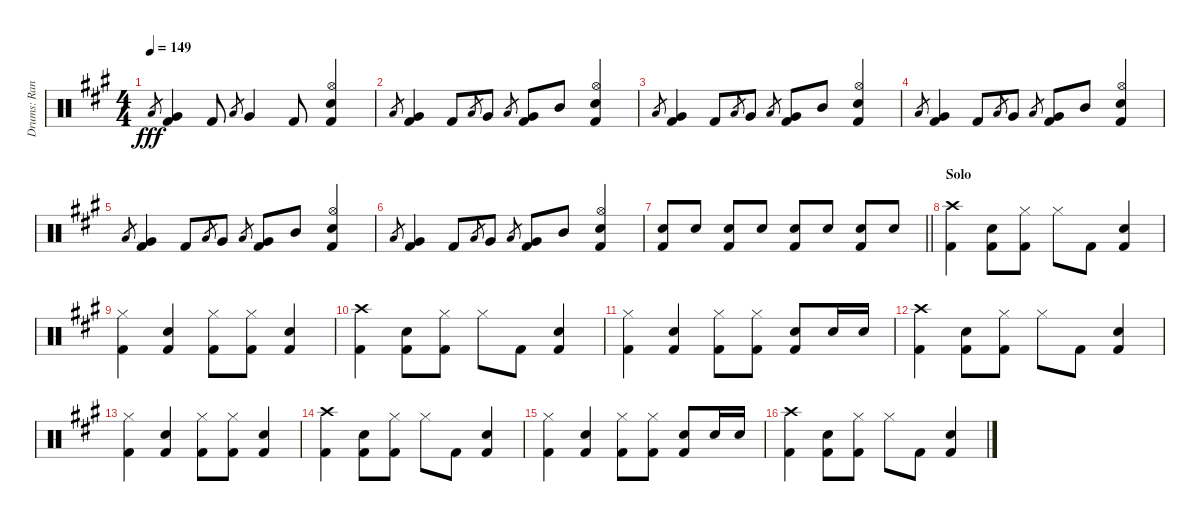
\track ("Drums: Randy" "Drums: Ran") {instrument percussion}
\staff {score}
\articulation defaults
\ts (4 4)
\tempo 149
\clef neutral
\ks a "Low Tom (hit)".8{gr dy fff}
("Very Low Tom (hit)" "Kick (hit) 2").4 "Kick (hit) 2".8 "Low Tom (hit)".8{gr} "Very Low Tom (hit)".4 "Kick (hit) 2".8 ("Hi-Hat (open)" "Snare (hit) 2" "Kick (hit) 2").4 |
"Low Tom (hit)".8{gr} ("Very Low Tom (hit)" "Kick (hit) 2").4 "Kick (hit) 2".8 "Low Tom (hit)".8{gr} "Very Low Tom (hit)".8 "Low Tom (hit)".8{gr} ("Very Low Tom (hit)" "Kick (hit) 2").8 "Mid Tom (hit)".8 ("Hi-Hat (open)" "Snare (hit) 2" "Kick (hit) 2").4 |
"Low Tom (hit)".8{gr} ("Very Low Tom (hit)" "Kick (hit) 2").4 "Kick (hit) 2".8 "Low Tom (hit)".8{gr} "Very Low Tom (hit)".8 "Low Tom (hit)".8{gr} ("Very Low Tom (hit)" "Kick (hit) 2").8 "Mid Tom (hit)".8 ("Hi-Hat (open)" "Snare (hit) 2" "Kick (hit) 2").4 |
"Low Tom (hit)".8{gr} ("Very Low Tom (hit)" "Kick (hit) 2").4 "Kick (hit) 2".8 "Low Tom (hit)".8{gr} "Very Low Tom (hit)".8 "Low Tom (hit)".8{gr} ("Very Low Tom (hit)" "Kick (hit) 2").8 "Mid Tom (hit)".8 ("Hi-Hat (open)" "Snare (hit) 2" "Kick (hit) 2").4 |
"Low Tom (hit)".8{gr} ("Very Low Tom (hit)" "Kick (hit) 2").4 "Kick (hit) 2".8 "Low Tom (hit)".8{gr} "Very Low Tom (hit)".8 "Low Tom (hit)".8{gr} ("Very Low Tom (hit)" "Kick (hit) 2").8 "Mid Tom (hit)".8 ("Hi-Hat (open)" "Snare (hit) 2" "Kick (hit) 2").4 |
"Low Tom (hit)".8{gr} ("Very Low Tom (hit)" "Kick (hit) 2").4 "Kick (hit) 2".8 "Low Tom (hit)".8{gr} "Very Low Tom (hit)".8 "Low Tom (hit)".8{gr} ("Very Low Tom (hit)" "Kick (hit) 2").8 "Mid Tom (hit)".8 ("Hi-Hat (open)" "Snare (hit) 2" "Kick (hit) 2").4 |
\barLineRight lightlight
("Snare (hit) 2" "Kick (hit) 2").8 "Snare (hit) 2".8 ("Snare (hit) 2" "Kick (hit) 2").8 "Snare (hit) 2".8 ("Snare (hit) 2" "Kick (hit) 2").8 "Snare (hit) 2".8 ("Snare (hit) 2" "Kick (hit) 2").8 "Snare (hit) 2".8 |
\section ("" "Solo")
("Crash high (hit)" "Kick (hit) 2").4 ("Snare (hit) 2" "Kick (hit) 2").8 ("Hi-Hat (closed)" "Kick (hit) 2").8 "Hi-Hat (closed)".8 "Kick (hit) 2".8 ("Snare (hit) 2" "Kick (hit) 2").4 |
("Hi-Hat (closed)" "Kick (hit) 2").4 ("Snare (hit) 2" "Kick (hit) 2").4 ("Hi-Hat (closed)" "Kick (hit) 2").8 ("Hi-Hat (closed)" "Kick (hit) 2").8 ("Snare (hit) 2" "Kick (hit) 2").4 |
("Crash high (hit)" "Kick (hit) 2").4 ("Snare (hit) 2" "Kick (hit) 2").8 ("Hi-Hat (closed)" "Kick (hit) 2").8 "Hi-Hat (closed)".8 "Kick (hit) 2".8 ("Snare (hit) 2" "Kick (hit) 2").4 |
("Hi-Hat (closed)" "Kick (hit) 2").4 ("Snare (hit) 2" "Kick (hit) 2").4 ("Hi-Hat (closed)" "Kick (hit) 2").8 ("Hi-Hat (closed)" "Kick (hit) 2").8 ("Snare (hit) 2" "Kick (hit) 2").8 "Snare (hit) 2".16 "Snare (hit) 2".16 |
("Crash high (hit)" "Kick (hit) 2").4 ("Snare (hit) 2" "Kick (hit) 2").8 ("Hi-Hat (closed)" "Kick (hit) 2").8 "Hi-Hat (closed)".8 "Kick (hit) 2".8 ("Snare (hit) 2" "Kick (hit) 2").4 |
("Hi-Hat (closed)" "Kick (hit) 2").4 ("Snare (hit) 2" "Kick (hit) 2").4 ("Hi-Hat (closed)" "Kick (hit) 2").8 ("Hi-Hat (closed)" "Kick (hit) 2").8 ("Snare (hit) 2" "Kick (hit) 2").4 |
("Crash high (hit)" "Kick (hit) 2").4 ("Snare (hit) 2" "Kick (hit) 2").8 ("Hi-Hat (closed)" "Kick (hit) 2").8 "Hi-Hat (closed)".8 "Kick (hit) 2".8 ("Snare (hit) 2" "Kick (hit) 2").4 |
("Hi-Hat (closed)" "Kick (hit) 2").4 ("Snare (hit) 2" "Kick (hit) 2").4 ("Hi-Hat (closed)" "Kick (hit) 2").8 ("Hi-Hat (closed)" "Kick (hit) 2").8 ("Snare (hit) 2" "Kick (hit) 2").8 "Snare (hit) 2".16 "Snare (hit) 2".16 |
("Crash high (hit)" "Kick (hit) 2").4 ("Snare (hit) 2" "Kick (hit) 2").8 ("Hi-Hat (closed)" "Kick (hit) 2").8 "Hi-Hat (closed)".8 "Kick (hit) 2".8 ("Snare (hit) 2" "Kick (hit) 2").4
